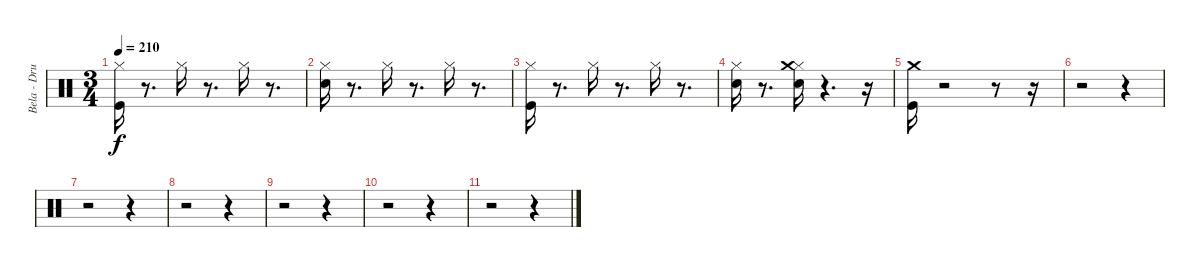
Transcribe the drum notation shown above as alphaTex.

\track ("Bela - Drums" "Bela - Dru") {instrument percussion}
\staff {score}
\articulation defaults
\ts (3 4)
\tempo 210
\clef neutral
\ks c
("Kick (hit)" "Hi-Hat (closed)").16{dy f} r.8{d} "Hi-Hat (closed)".16 r.8{d} "Hi-Hat (closed)".16 r.8{d} |
("Hi-Hat (closed)" "Electric Snare (hit)").16 r.8{d} "Hi-Hat (closed)".16 r.8{d} "Hi-Hat (closed)".16 r.8{d} |
("Kick (hit)" "Hi-Hat (closed)").16 r.8{d} "Hi-Hat (closed)".16 r.8{d} "Hi-Hat (closed)".16 r.8{d} |
("Hi-Hat (closed)" "Electric Snare (hit)").16 r.8{d} ("Hi-Hat (closed)" "Electric Snare (hit)" "Crash medium (hit)").16 r.4{d} r.16 |
("Kick (hit)" "Crash medium (hit)").16 r.2 r.8 r.16 |
r.2 r.4 |
r.2 r.4 |
r.2 r.4 |
r.2 r.4 |
r.2 r.4 |
r.2 r.4
